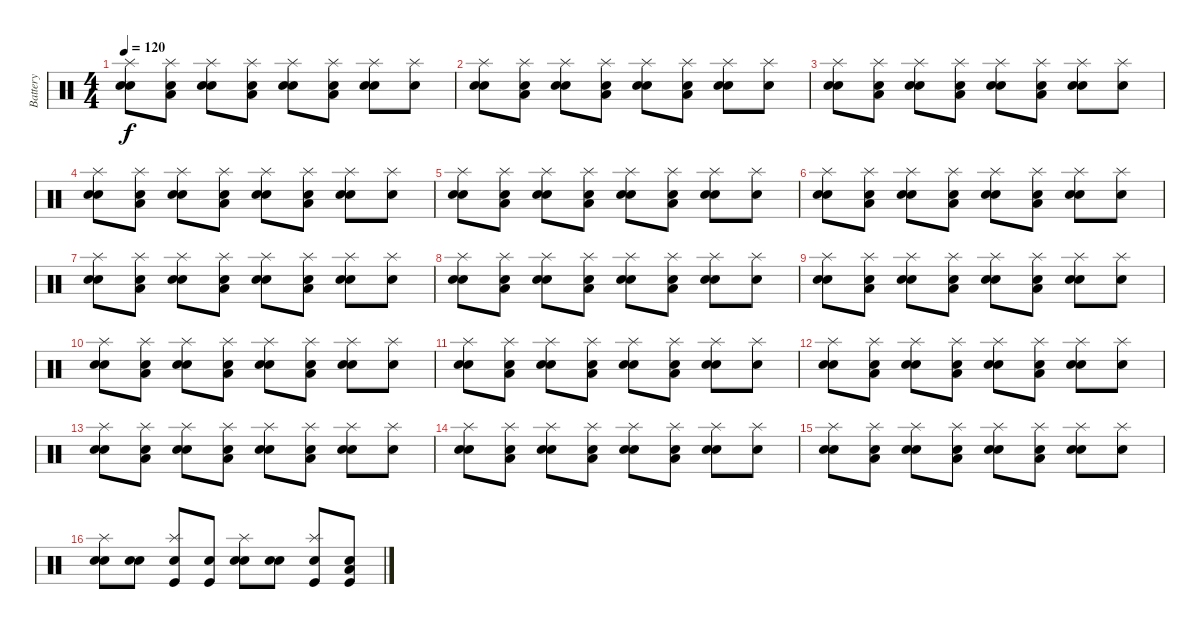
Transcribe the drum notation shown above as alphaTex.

\track ("Battery" "Battery") {instrument percussion}
\staff {score}
\articulation defaults
\ts (4 4)
\tempo 120
\clef neutral
\ks c
("Snare (hit) 2" "Electric Snare (hit)" "Splash (hit)").8{dy f} ("Snare (hit) 2" "Splash (hit)" "Low Floor Tom (hit)").8 ("Snare (hit) 2" "Electric Snare (hit)" "Splash (hit)").8 ("Snare (hit) 2" "Splash (hit)" "Low Floor Tom (hit)").8 ("Snare (hit) 2" "Electric Snare (hit)" "Splash (hit)").8 ("Snare (hit) 2" "Splash (hit)" "Low Floor Tom (hit)").8 ("Snare (hit) 2" "Electric Snare (hit)" "Splash (hit)").8 ("Snare (hit) 2" "Splash (hit)").8 |
("Snare (hit) 2" "Electric Snare (hit)" "Splash (hit)").8 ("Snare (hit) 2" "Splash (hit)" "Low Floor Tom (hit)").8 ("Snare (hit) 2" "Electric Snare (hit)" "Splash (hit)").8 ("Snare (hit) 2" "Splash (hit)" "Low Floor Tom (hit)").8 ("Snare (hit) 2" "Electric Snare (hit)" "Splash (hit)").8 ("Snare (hit) 2" "Splash (hit)" "Low Floor Tom (hit)").8 ("Snare (hit) 2" "Electric Snare (hit)" "Splash (hit)").8 ("Snare (hit) 2" "Splash (hit)").8 |
("Snare (hit) 2" "Electric Snare (hit)" "Splash (hit)").8 ("Snare (hit) 2" "Splash (hit)" "Low Floor Tom (hit)").8 ("Snare (hit) 2" "Electric Snare (hit)" "Splash (hit)").8 ("Snare (hit) 2" "Splash (hit)" "Low Floor Tom (hit)").8 ("Snare (hit) 2" "Electric Snare (hit)" "Splash (hit)").8 ("Snare (hit) 2" "Splash (hit)" "Low Floor Tom (hit)").8 ("Snare (hit) 2" "Electric Snare (hit)" "Splash (hit)").8 ("Snare (hit) 2" "Splash (hit)").8 |
("Snare (hit) 2" "Electric Snare (hit)" "Splash (hit)").8 ("Snare (hit) 2" "Splash (hit)" "Low Floor Tom (hit)").8 ("Snare (hit) 2" "Electric Snare (hit)" "Splash (hit)").8 ("Snare (hit) 2" "Splash (hit)" "Low Floor Tom (hit)").8 ("Snare (hit) 2" "Electric Snare (hit)" "Splash (hit)").8 ("Snare (hit) 2" "Splash (hit)" "Low Floor Tom (hit)").8 ("Snare (hit) 2" "Electric Snare (hit)" "Splash (hit)").8 ("Snare (hit) 2" "Splash (hit)").8 |
("Snare (hit) 2" "Electric Snare (hit)" "Splash (hit)").8 ("Snare (hit) 2" "Splash (hit)" "Low Floor Tom (hit)").8 ("Snare (hit) 2" "Electric Snare (hit)" "Splash (hit)").8 ("Snare (hit) 2" "Splash (hit)" "Low Floor Tom (hit)").8 ("Snare (hit) 2" "Electric Snare (hit)" "Splash (hit)").8 ("Snare (hit) 2" "Splash (hit)" "Low Floor Tom (hit)").8 ("Snare (hit) 2" "Electric Snare (hit)" "Splash (hit)").8 ("Snare (hit) 2" "Splash (hit)").8 |
("Snare (hit) 2" "Electric Snare (hit)" "Splash (hit)").8 ("Snare (hit) 2" "Splash (hit)" "Low Floor Tom (hit)").8 ("Snare (hit) 2" "Electric Snare (hit)" "Splash (hit)").8 ("Snare (hit) 2" "Splash (hit)" "Low Floor Tom (hit)").8 ("Snare (hit) 2" "Electric Snare (hit)" "Splash (hit)").8 ("Snare (hit) 2" "Splash (hit)" "Low Floor Tom (hit)").8 ("Snare (hit) 2" "Electric Snare (hit)" "Splash (hit)").8 ("Snare (hit) 2" "Splash (hit)").8 |
("Snare (hit) 2" "Electric Snare (hit)" "Splash (hit)").8 ("Snare (hit) 2" "Splash (hit)" "Low Floor Tom (hit)").8 ("Snare (hit) 2" "Electric Snare (hit)" "Splash (hit)").8 ("Snare (hit) 2" "Splash (hit)" "Low Floor Tom (hit)").8 ("Snare (hit) 2" "Electric Snare (hit)" "Splash (hit)").8 ("Snare (hit) 2" "Splash (hit)" "Low Floor Tom (hit)").8 ("Snare (hit) 2" "Electric Snare (hit)" "Splash (hit)").8 ("Snare (hit) 2" "Splash (hit)").8 |
("Snare (hit) 2" "Electric Snare (hit)" "Splash (hit)").8 ("Snare (hit) 2" "Splash (hit)" "Low Floor Tom (hit)").8 ("Snare (hit) 2" "Electric Snare (hit)" "Splash (hit)").8 ("Snare (hit) 2" "Splash (hit)" "Low Floor Tom (hit)").8 ("Snare (hit) 2" "Electric Snare (hit)" "Splash (hit)").8 ("Snare (hit) 2" "Splash (hit)" "Low Floor Tom (hit)").8 ("Snare (hit) 2" "Electric Snare (hit)" "Splash (hit)").8 ("Snare (hit) 2" "Splash (hit)").8 |
("Snare (hit) 2" "Electric Snare (hit)" "Splash (hit)").8 ("Snare (hit) 2" "Splash (hit)" "Low Floor Tom (hit)").8 ("Snare (hit) 2" "Electric Snare (hit)" "Splash (hit)").8 ("Snare (hit) 2" "Splash (hit)" "Low Floor Tom (hit)").8 ("Snare (hit) 2" "Electric Snare (hit)" "Splash (hit)").8 ("Snare (hit) 2" "Splash (hit)" "Low Floor Tom (hit)").8 ("Snare (hit) 2" "Electric Snare (hit)" "Splash (hit)").8 ("Snare (hit) 2" "Splash (hit)").8 |
("Snare (hit) 2" "Electric Snare (hit)" "Splash (hit)").8 ("Snare (hit) 2" "Splash (hit)" "Low Floor Tom (hit)").8 ("Snare (hit) 2" "Electric Snare (hit)" "Splash (hit)").8 ("Snare (hit) 2" "Splash (hit)" "Low Floor Tom (hit)").8 ("Snare (hit) 2" "Electric Snare (hit)" "Splash (hit)").8 ("Snare (hit) 2" "Splash (hit)" "Low Floor Tom (hit)").8 ("Snare (hit) 2" "Electric Snare (hit)" "Splash (hit)").8 ("Snare (hit) 2" "Splash (hit)").8 |
("Snare (hit) 2" "Electric Snare (hit)" "Splash (hit)").8 ("Snare (hit) 2" "Splash (hit)" "Low Floor Tom (hit)").8 ("Snare (hit) 2" "Electric Snare (hit)" "Splash (hit)").8 ("Snare (hit) 2" "Splash (hit)" "Low Floor Tom (hit)").8 ("Snare (hit) 2" "Electric Snare (hit)" "Splash (hit)").8 ("Snare (hit) 2" "Splash (hit)" "Low Floor Tom (hit)").8 ("Snare (hit) 2" "Electric Snare (hit)" "Splash (hit)").8 ("Snare (hit) 2" "Splash (hit)").8 |
("Snare (hit) 2" "Electric Snare (hit)" "Splash (hit)").8 ("Snare (hit) 2" "Splash (hit)" "Low Floor Tom (hit)").8 ("Snare (hit) 2" "Electric Snare (hit)" "Splash (hit)").8 ("Snare (hit) 2" "Splash (hit)" "Low Floor Tom (hit)").8 ("Snare (hit) 2" "Electric Snare (hit)" "Splash (hit)").8 ("Snare (hit) 2" "Splash (hit)" "Low Floor Tom (hit)").8 ("Snare (hit) 2" "Electric Snare (hit)" "Splash (hit)").8 ("Snare (hit) 2" "Splash (hit)").8 |
("Snare (hit) 2" "Electric Snare (hit)" "Splash (hit)").8 ("Snare (hit) 2" "Splash (hit)" "Low Floor Tom (hit)").8 ("Snare (hit) 2" "Electric Snare (hit)" "Splash (hit)").8 ("Snare (hit) 2" "Splash (hit)" "Low Floor Tom (hit)").8 ("Snare (hit) 2" "Electric Snare (hit)" "Splash (hit)").8 ("Snare (hit) 2" "Splash (hit)" "Low Floor Tom (hit)").8 ("Snare (hit) 2" "Electric Snare (hit)" "Splash (hit)").8 ("Snare (hit) 2" "Splash (hit)").8 |
("Snare (hit) 2" "Electric Snare (hit)" "Splash (hit)").8 ("Snare (hit) 2" "Splash (hit)" "Low Floor Tom (hit)").8 ("Snare (hit) 2" "Electric Snare (hit)" "Splash (hit)").8 ("Snare (hit) 2" "Splash (hit)" "Low Floor Tom (hit)").8 ("Snare (hit) 2" "Electric Snare (hit)" "Splash (hit)").8 ("Snare (hit) 2" "Splash (hit)" "Low Floor Tom (hit)").8 ("Snare (hit) 2" "Electric Snare (hit)" "Splash (hit)").8 ("Snare (hit) 2" "Splash (hit)").8 |
("Snare (hit) 2" "Electric Snare (hit)" "Splash (hit)").8 ("Snare (hit) 2" "Splash (hit)" "Low Floor Tom (hit)").8 ("Snare (hit) 2" "Electric Snare (hit)" "Splash (hit)").8 ("Snare (hit) 2" "Splash (hit)" "Low Floor Tom (hit)").8 ("Snare (hit) 2" "Electric Snare (hit)" "Splash (hit)").8 ("Snare (hit) 2" "Splash (hit)" "Low Floor Tom (hit)").8 ("Snare (hit) 2" "Electric Snare (hit)" "Splash (hit)").8 ("Snare (hit) 2" "Splash (hit)").8 |
("Snare (hit) 2" "Electric Snare (hit)" "Splash (hit)").8 ("Snare (hit) 2" "Electric Snare (hit)").8 ("Kick (hit)" "Electric Snare (hit)" "Splash (hit)").8 ("Kick (hit)" "Electric Snare (hit)").8 ("Snare (hit) 2" "Electric Snare (hit)" "Splash (hit)").8 ("Snare (hit) 2" "Electric Snare (hit)").8 ("Kick (hit)" "Electric Snare (hit)" "Splash (hit)").8 ("Kick (hit)" "Electric Snare (hit)" "Low Floor Tom (hit)").8
